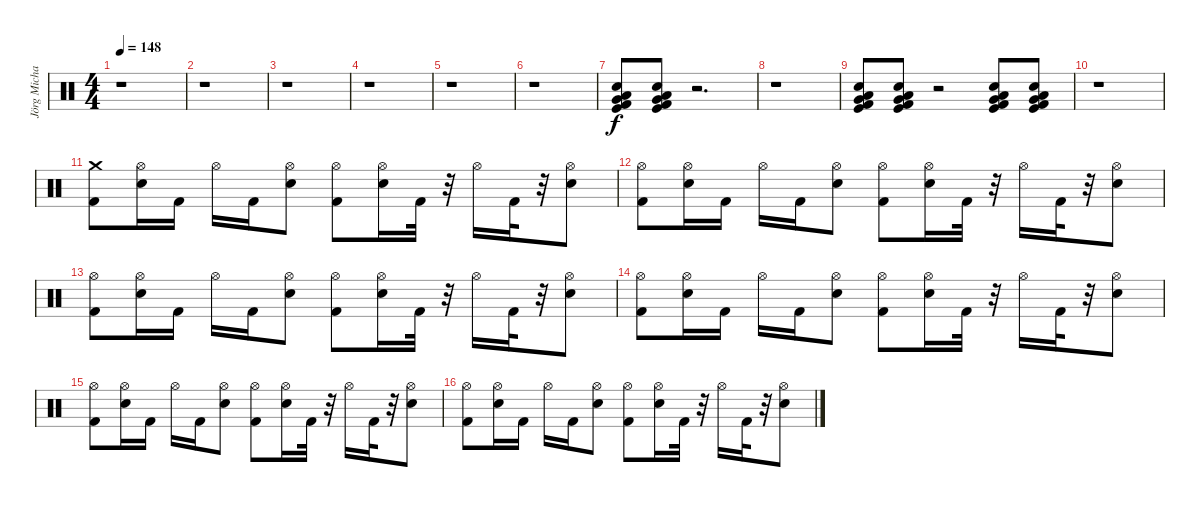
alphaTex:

\track ("Jörg Michael" "Jörg Micha") {instrument percussion}
\staff {score}
\articulation defaults
\ts (4 4)
\tempo 148
\clef neutral
\ks c
r.1{dy f} |
r.1 |
r.1 |
r.1 |
r.1 |
r.1 |
("Electric Snare (hit)" "Kick (hit)" "Kick (hit) 2" "Low Tom (hit)" "Very Low Tom (hit)").8 ("Electric Snare (hit)" "Kick (hit)" "Kick (hit) 2" "Low Tom (hit)" "Very Low Tom (hit)").8 r.2{d} |
r.1 |
("Electric Snare (hit)" "Kick (hit)" "Kick (hit) 2" "Very Low Tom (hit)" "Low Tom (hit)").8 ("Electric Snare (hit)" "Kick (hit)" "Kick (hit) 2" "Low Tom (hit)" "Very Low Tom (hit)").8 r.2 ("Electric Snare (hit)" "Kick (hit)" "Kick (hit) 2" "Very Low Tom (hit)" "Low Tom (hit)").8 ("Electric Snare (hit)" "Kick (hit)" "Kick (hit) 2" "Low Tom (hit)" "Very Low Tom (hit)").8 |
r.1 |
("Crash medium (hit)" "Kick (hit) 2").8 ("Hi-Hat (open)" "Electric Snare (hit)").16 "Kick (hit) 2".16 "Hi-Hat (open)".16 "Kick (hit) 2".16 ("Hi-Hat (open)" "Electric Snare (hit)").8 ("Hi-Hat (open)" "Kick (hit) 2").8 ("Hi-Hat (open)" "Electric Snare (hit)").16 "Kick (hit) 2".32 r.32 "Hi-Hat (open)".16 "Kick (hit) 2".32 r.32 ("Hi-Hat (open)" "Electric Snare (hit)").8 |
("Hi-Hat (open)" "Kick (hit) 2").8 ("Hi-Hat (open)" "Electric Snare (hit)").16 "Kick (hit) 2".16 "Hi-Hat (open)".16 "Kick (hit) 2".16 ("Hi-Hat (open)" "Electric Snare (hit)").8 ("Hi-Hat (open)" "Kick (hit) 2").8 ("Hi-Hat (open)" "Electric Snare (hit)").16 "Kick (hit) 2".32 r.32 "Hi-Hat (open)".16 "Kick (hit) 2".32 r.32 ("Hi-Hat (open)" "Electric Snare (hit)").8 |
("Hi-Hat (open)" "Kick (hit) 2").8 ("Hi-Hat (open)" "Electric Snare (hit)").16 "Kick (hit) 2".16 "Hi-Hat (open)".16 "Kick (hit) 2".16 ("Hi-Hat (open)" "Electric Snare (hit)").8 ("Hi-Hat (open)" "Kick (hit) 2").8 ("Hi-Hat (open)" "Electric Snare (hit)").16 "Kick (hit) 2".32 r.32 "Hi-Hat (open)".16 "Kick (hit) 2".32 r.32 ("Hi-Hat (open)" "Electric Snare (hit)").8 |
("Hi-Hat (open)" "Kick (hit) 2").8 ("Hi-Hat (open)" "Electric Snare (hit)").16 "Kick (hit) 2".16 "Hi-Hat (open)".16 "Kick (hit) 2".16 ("Hi-Hat (open)" "Electric Snare (hit)").8 ("Hi-Hat (open)" "Kick (hit) 2").8 ("Hi-Hat (open)" "Electric Snare (hit)").16 "Kick (hit) 2".32 r.32 "Hi-Hat (open)".16 "Kick (hit) 2".32 r.32 ("Hi-Hat (open)" "Electric Snare (hit)").8 |
("Hi-Hat (open)" "Kick (hit) 2").8 ("Hi-Hat (open)" "Electric Snare (hit)").16 "Kick (hit) 2".16 "Hi-Hat (open)".16 "Kick (hit) 2".16 ("Hi-Hat (open)" "Electric Snare (hit)").8 ("Hi-Hat (open)" "Kick (hit) 2").8 ("Hi-Hat (open)" "Electric Snare (hit)").16 "Kick (hit) 2".32 r.32 "Hi-Hat (open)".16 "Kick (hit) 2".32 r.32 ("Hi-Hat (open)" "Electric Snare (hit)").8 |
("Hi-Hat (open)" "Kick (hit) 2").8 ("Hi-Hat (open)" "Electric Snare (hit)").16 "Kick (hit) 2".16 "Hi-Hat (open)".16 "Kick (hit) 2".16 ("Hi-Hat (open)" "Electric Snare (hit)").8 ("Hi-Hat (open)" "Kick (hit) 2").8 ("Hi-Hat (open)" "Electric Snare (hit)").16 "Kick (hit) 2".32 r.32 "Hi-Hat (open)".16 "Kick (hit) 2".32 r.32 ("Hi-Hat (open)" "Electric Snare (hit)").8
